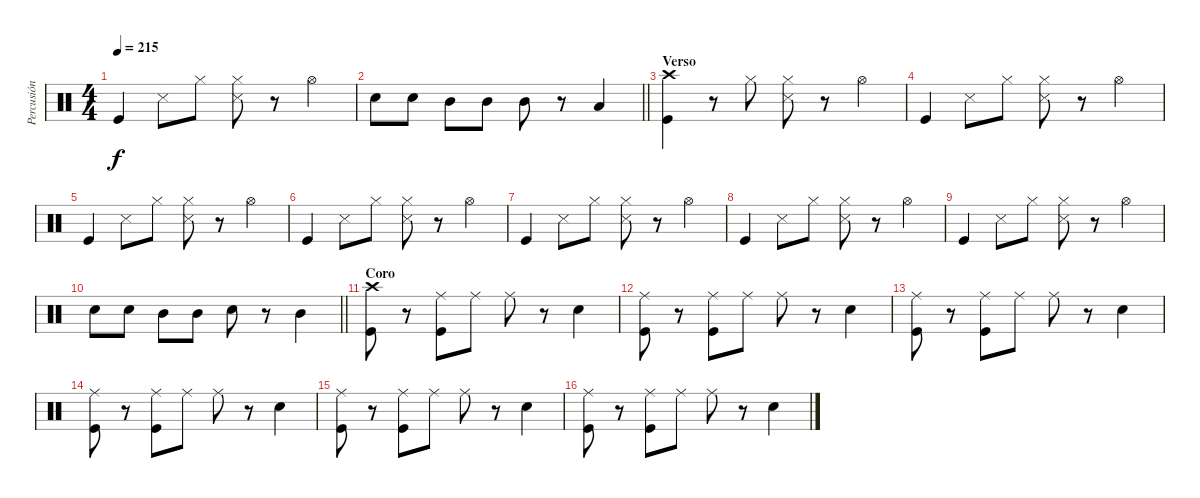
\track ("Percusión" "Percusión") {instrument percussion}
\staff {score}
\articulation defaults
\ts (4 4)
\tempo 215
\clef neutral
\ks c "Kick (hit)".4{dy f} "Snare (side stick) 3".8 "Hi-Hat (closed)".8
("Hi-Hat (closed)" "Snare (side stick) 3").8 r.8 "Hi-Hat (open)".4 |
\barLineRight lightlight "Snare (hit) 2".8 "Snare (hit) 2".8 "Mid Tom (hit)".8 "Mid Tom (hit)".8 "Mid Tom (hit)".8
r.8 "Low Tom (hit)".4 |
\section ("" "Verso")
("Crash high (hit)" "Kick (hit)").4 r.8 "Hi-Hat (closed)".8 ("Hi-Hat (closed)" "Snare (side stick) 3").8 r.8 "Hi-Hat (open)".4 |
"Kick (hit)".4 "Snare (side stick) 3".8 "Hi-Hat (closed)".8 ("Hi-Hat (closed)" "Snare (side stick) 3").8 r.8 "Hi-Hat (open)".4 |
"Kick (hit)".4 "Snare (side stick) 3".8 "Hi-Hat (closed)".8 ("Hi-Hat (closed)" "Snare (side stick) 3").8 r.8 "Hi-Hat (open)".4 |
"Kick (hit)".4 "Snare (side stick) 3".8 "Hi-Hat (closed)".8 ("Hi-Hat (closed)" "Snare (side stick) 3").8 r.8 "Hi-Hat (open)".4 |
"Kick (hit)".4 "Snare (side stick) 3".8 "Hi-Hat (closed)".8 ("Hi-Hat (closed)" "Snare (side stick) 3").8 r.8 "Hi-Hat (open)".4 |
"Kick (hit)".4 "Snare (side stick) 3".8 "Hi-Hat (closed)".8 ("Hi-Hat (closed)" "Snare (side stick) 3").8 r.8 "Hi-Hat (open)".4 |
"Kick (hit)".4 "Snare (side stick) 3".8 "Hi-Hat (closed)".8 ("Hi-Hat (closed)" "Snare (side stick) 3").8 r.8 "Hi-Hat (open)".4 |
\barLineRight lightlight "Snare (hit) 2".8 "Snare (hit) 2".8 "Mid Tom (hit)".8 "Mid Tom (hit)".8 "Snare (hit) 2".8
r.8 "Mid Tom (hit)".4 |
\section ("" "Coro")
("Crash high (hit)" "Kick (hit)").8 r.8 ("Ride (middle)" "Kick (hit)").8 "Ride (middle)".8 "Ride (middle)".8 r.8 "Snare (hit) 2".4 |
("Ride (middle)" "Kick (hit)").8 r.8 ("Ride (middle)" "Kick (hit)").8 "Ride (middle)".8 "Ride (middle)".8 r.8 "Snare (hit) 2".4 |
("Ride (middle)" "Kick (hit)").8 r.8 ("Ride (middle)" "Kick (hit)").8 "Ride (middle)".8 "Ride (middle)".8 r.8 "Snare (hit) 2".4 |
("Ride (middle)" "Kick (hit)").8 r.8 ("Ride (middle)" "Kick (hit)").8 "Ride (middle)".8 "Ride (middle)".8 r.8 "Snare (hit) 2".4 |
("Ride (middle)" "Kick (hit)").8 r.8 ("Ride (middle)" "Kick (hit)").8 "Ride (middle)".8 "Ride (middle)".8 r.8 "Snare (hit) 2".4 |
("Ride (middle)" "Kick (hit)").8 r.8 ("Ride (middle)" "Kick (hit)").8 "Ride (middle)".8 "Ride (middle)".8 r.8 "Snare (hit) 2".4
